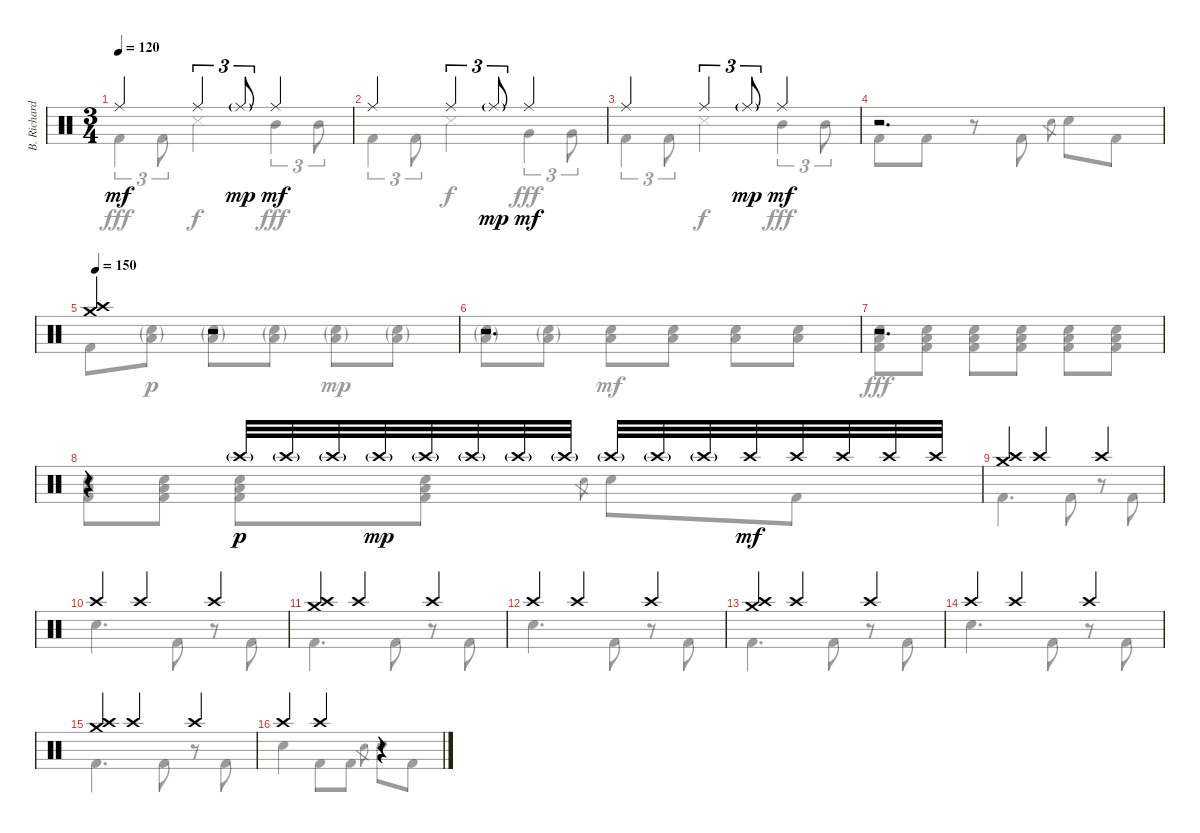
\track ("B. Richardson Drums" "B. Richard") {instrument percussion}
\staff {score}
\articulation defaults
\voice
\ts (3 4)
\tempo 120
\clef neutral
\ks c "Ride (middle)".4{dy mf} "Ride (middle)".4{tu (3 2)} "Ride (middle)"{g}.8{tu (3 2) dy mp} "Ride (middle)".4{dy mf}
|
"Ride (middle)".4 "Ride (middle)".4{tu (3 2)} "Ride (middle)"{g}.8{tu (3 2) dy mp} "Ride (middle)".4{dy mf} |
"Ride (middle)".4 "Ride (middle)".4{tu (3 2)} "Ride (middle)"{g}.8{tu (3 2) dy mp} "Ride (middle)".4{dy mf} |
r.2{d} |
\tempo 150
("Crash high (hit)" "Crash medium (hit)").4 r.2 |
r.2{d} |
r.2{d} |
r.4 "Crash high (hit)"{g}.32{dy p} "Crash high (hit)"{g}.32 "Crash high (hit)"{g}.32 "Crash high (hit)"{g}.32{dy mp} "Crash high (hit)"{g}.32 "Crash high (hit)"{g}.32 "Crash high (hit)"{g}.32 "Crash high (hit)"{g}.32 "Crash high (hit)"{g}.32 "Crash high (hit)"{g}.32 "Crash high (hit)"{g}.32 "Crash high (hit)".32{dy mf} "Crash high (hit)".32 "Crash high (hit)".32 "Crash high (hit)".32 "Crash high (hit)".32 |
("Crash high (hit)" "Crash medium (hit)").4 "Crash high (hit)".4 "Crash high (hit)".4 |
"Crash high (hit)".4 "Crash high (hit)".4 "Crash high (hit)".4 |
("Crash high (hit)" "Crash medium (hit)").4 "Crash high (hit)".4 "Crash high (hit)".4 |
"Crash high (hit)".4 "Crash high (hit)".4 "Crash high (hit)".4 |
("Crash high (hit)" "Crash medium (hit)").4 "Crash high (hit)".4 "Crash high (hit)".4 |
"Crash high (hit)".4 "Crash high (hit)".4 "Crash high (hit)".4 |
("Crash high (hit)" "Crash medium (hit)").4 "Crash high (hit)".4 "Crash high (hit)".4 |
"Crash high (hit)".4 "Crash high (hit)".4 r.4
\voice
\clef neutral
\ottava regular
\simile none
\ks c "Kick (hit) 2".4{tu (3 2) dy fff} "Kick (hit) 2".8{tu (3 2)} "Snare (side stick) 3".4{dy f} "Mid Tom (hit)".4{tu (3 2) dy fff} "Mid Tom (hit)".8{tu (3 2)}
|
"Kick (hit) 2".4{tu (3 2)} "Kick (hit) 2".8{tu (3 2)} "Snare (side stick) 3".4{dy f} "Very Low Tom (hit)".4{tu (3 2) dy fff} "Very Low Tom (hit)".8{tu (3 2)} |
"Kick (hit) 2".4{tu (3 2)} "Kick (hit) 2".8{tu (3 2)} "Snare (side stick) 3".4{dy f} "Mid Tom (hit)".4{tu (3 2) dy fff} "Mid Tom (hit)".8{tu (3 2)} |
"Kick (hit) 2".8 "Kick (hit) 2".8 r.8 "Kick (hit) 2".8 "Electric Snare (hit)".8{gr} "Electric Snare (hit)".8 "Kick (hit) 2".8 |
"Kick (hit) 2".8 ("Electric Snare (hit)"{g} "Low Tom (hit)"{g}).8{dy p} ("Electric Snare (hit)"{g} "Low Tom (hit)"{g}).8 ("Electric Snare (hit)"{g} "Low Tom (hit)"{g}).8 ("Electric Snare (hit)"{g} "Low Tom (hit)"{g}).8{dy mp} ("Electric Snare (hit)"{g} "Low Tom (hit)"{g}).8 |
("Electric Snare (hit)"{g} "Low Tom (hit)"{g}).8 ("Electric Snare (hit)"{g} "Low Tom (hit)"{g}).8 ("Electric Snare (hit)" "Low Tom (hit)").8{dy mf} ("Electric Snare (hit)" "Low Tom (hit)").8 ("Electric Snare (hit)" "Low Tom (hit)").8 ("Electric Snare (hit)" "Low Tom (hit)").8 |
("Electric Snare (hit)" "Low Tom (hit)" "Kick (hit) 2").8{dy fff} ("Electric Snare (hit)" "Low Tom (hit)" "Kick (hit) 2").8 ("Electric Snare (hit)" "Low Tom (hit)" "Kick (hit) 2").8 ("Electric Snare (hit)" "Low Tom (hit)" "Kick (hit) 2").8 ("Electric Snare (hit)" "Low Tom (hit)" "Kick (hit) 2").8 ("Electric Snare (hit)" "Low Tom (hit)" "Kick (hit) 2").8 |
("Electric Snare (hit)" "Low Tom (hit)" "Kick (hit) 2").8 ("Electric Snare (hit)" "Low Tom (hit)" "Kick (hit) 2").8 ("Electric Snare (hit)" "Low Tom (hit)" "Kick (hit) 2").8 ("Electric Snare (hit)" "Low Tom (hit)" "Kick (hit) 2").8 "Electric Snare (hit)".8{gr} "Electric Snare (hit)".8 "Kick (hit) 2".8 |
"Kick (hit) 2".4{d} "Kick (hit) 2".8 r.8 "Kick (hit) 2".8 |
"Electric Snare (hit)".4{d} "Kick (hit) 2".8 r.8 "Kick (hit) 2".8 |
"Kick (hit) 2".4{d} "Kick (hit) 2".8 r.8 "Kick (hit) 2".8 |
"Electric Snare (hit)".4{d} "Kick (hit) 2".8 r.8 "Kick (hit) 2".8 |
"Kick (hit) 2".4{d} "Kick (hit) 2".8 r.8 "Kick (hit) 2".8 |
"Electric Snare (hit)".4{d} "Kick (hit) 2".8 r.8 "Kick (hit) 2".8 |
"Kick (hit) 2".4{d} "Kick (hit) 2".8 r.8 "Kick (hit) 2".8 |
"Electric Snare (hit)".4 "Kick (hit) 2".8 "Kick (hit) 2".8 "Electric Snare (hit)".8{gr} "Electric Snare (hit)".8 "Kick (hit) 2".8
